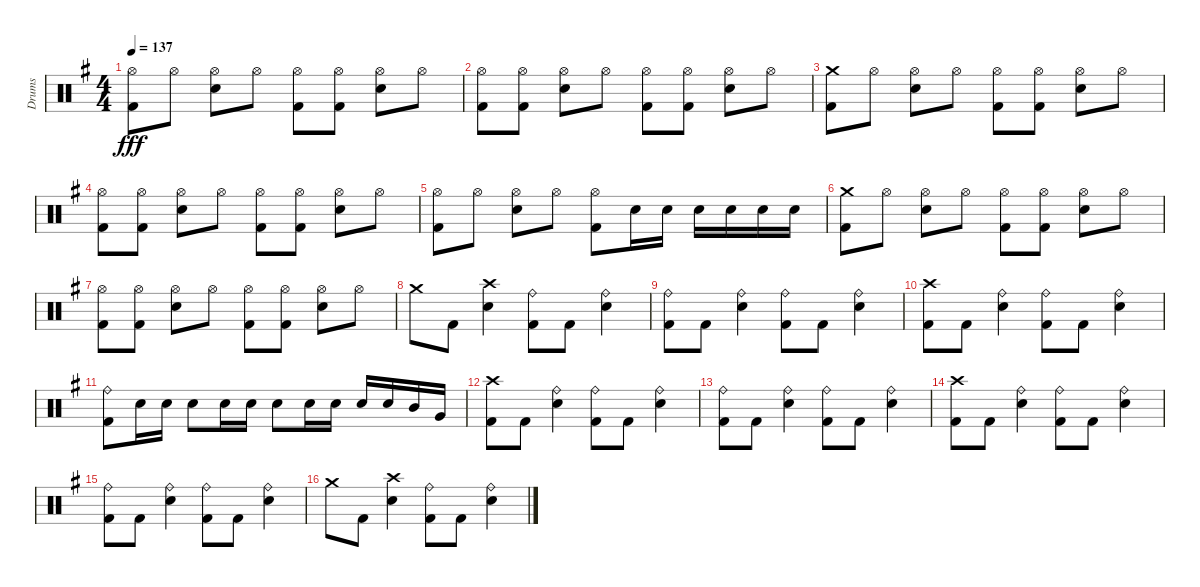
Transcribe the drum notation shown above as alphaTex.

\track ("Drums" "Drums") {instrument percussion}
\staff {score}
\articulation defaults
\ts (4 4)
\tempo 137
\clef neutral
\ks g
("Hi-Hat (open)" "Kick (hit) 2").8{dy fff} "Hi-Hat (open)".8 ("Hi-Hat (open)" "Electric Snare (hit)").8 "Hi-Hat (open)".8 ("Hi-Hat (open)" "Kick (hit) 2").8 ("Hi-Hat (open)" "Kick (hit) 2").8 ("Hi-Hat (open)" "Electric Snare (hit)").8 "Hi-Hat (open)".8 |
("Hi-Hat (open)" "Kick (hit) 2").8 ("Hi-Hat (open)" "Kick (hit) 2").8 ("Hi-Hat (open)" "Electric Snare (hit)").8 "Hi-Hat (open)".8 ("Hi-Hat (open)" "Kick (hit) 2").8 ("Hi-Hat (open)" "Kick (hit) 2").8 ("Hi-Hat (open)" "Electric Snare (hit)").8 "Hi-Hat (open)".8 |
("Crash medium (hit)" "Kick (hit) 2").8 "Hi-Hat (open)".8 ("Hi-Hat (open)" "Electric Snare (hit)").8 "Hi-Hat (open)".8 ("Hi-Hat (open)" "Kick (hit) 2").8 ("Hi-Hat (open)" "Kick (hit) 2").8 ("Hi-Hat (open)" "Electric Snare (hit)").8 "Hi-Hat (open)".8 |
("Hi-Hat (open)" "Kick (hit) 2").8 ("Hi-Hat (open)" "Kick (hit) 2").8 ("Hi-Hat (open)" "Electric Snare (hit)").8 "Hi-Hat (open)".8 ("Hi-Hat (open)" "Kick (hit) 2").8 ("Hi-Hat (open)" "Kick (hit) 2").8 ("Hi-Hat (open)" "Electric Snare (hit)").8 "Hi-Hat (open)".8 |
("Hi-Hat (open)" "Kick (hit) 2").8 "Hi-Hat (open)".8 ("Hi-Hat (open)" "Electric Snare (hit)").8 "Hi-Hat (open)".8 ("Hi-Hat (open)" "Kick (hit) 2").8 "Electric Snare (hit)".16 "Electric Snare (hit)".16 "Electric Snare (hit)".16 "Electric Snare (hit)".16 "Electric Snare (hit)".16 "Electric Snare (hit)".16 |
("Crash medium (hit)" "Kick (hit) 2").8 "Hi-Hat (open)".8 ("Hi-Hat (open)" "Electric Snare (hit)").8 "Hi-Hat (open)".8 ("Hi-Hat (open)" "Kick (hit) 2").8 ("Hi-Hat (open)" "Kick (hit) 2").8 ("Hi-Hat (open)" "Electric Snare (hit)").8 "Hi-Hat (open)".8 |
("Hi-Hat (open)" "Kick (hit) 2").8 ("Hi-Hat (open)" "Kick (hit) 2").8 ("Hi-Hat (open)" "Electric Snare (hit)").8 "Hi-Hat (open)".8 ("Hi-Hat (open)" "Kick (hit) 2").8 ("Hi-Hat (open)" "Kick (hit) 2").8 ("Hi-Hat (open)" "Electric Snare (hit)").8 "Hi-Hat (open)".8 |
"Crash medium (hit)".8 "Kick (hit) 2".8 ("Crash high (hit)" "Electric Snare (hit)").4 ("Ride (bell)" "Kick (hit) 2").8 "Kick (hit) 2".8 ("Ride (bell)" "Electric Snare (hit)").4 |
("Ride (bell)" "Kick (hit) 2").8 "Kick (hit) 2".8 ("Ride (bell)" "Electric Snare (hit)").4 ("Ride (bell)" "Kick (hit) 2").8 "Kick (hit) 2".8 ("Ride (bell)" "Electric Snare (hit)").4 |
("Crash high (hit)" "Kick (hit) 2").8 "Kick (hit) 2".8 ("Ride (bell)" "Electric Snare (hit)").4 ("Ride (bell)" "Kick (hit) 2").8 "Kick (hit) 2".8 ("Ride (bell)" "Electric Snare (hit)").4 |
("Ride (bell)" "Kick (hit) 2").8 "Electric Snare (hit)".16 "Electric Snare (hit)".16 "Electric Snare (hit)".8 "Electric Snare (hit)".16 "Electric Snare (hit)".16 "Electric Snare (hit)".8 "Electric Snare (hit)".16 "Electric Snare (hit)".16 "Electric Snare (hit)".16 "Electric Snare (hit)".16 "Mid Tom (hit)".16 "Very Low Tom (hit)".16 |
("Crash high (hit)" "Kick (hit) 2").8 "Kick (hit) 2".8 ("Ride (bell)" "Electric Snare (hit)").4 ("Ride (bell)" "Kick (hit) 2").8 "Kick (hit) 2".8 ("Ride (bell)" "Electric Snare (hit)").4 |
("Ride (bell)" "Kick (hit) 2").8 "Kick (hit) 2".8 ("Ride (bell)" "Electric Snare (hit)").4 ("Ride (bell)" "Kick (hit) 2").8 "Kick (hit) 2".8 ("Ride (bell)" "Electric Snare (hit)").4 |
("Crash high (hit)" "Kick (hit) 2").8 "Kick (hit) 2".8 ("Ride (bell)" "Electric Snare (hit)").4 ("Ride (bell)" "Kick (hit) 2").8 "Kick (hit) 2".8 ("Ride (bell)" "Electric Snare (hit)").4 |
("Ride (bell)" "Kick (hit) 2").8 "Kick (hit) 2".8 ("Ride (bell)" "Electric Snare (hit)").4 ("Ride (bell)" "Kick (hit) 2").8 "Kick (hit) 2".8 ("Ride (bell)" "Electric Snare (hit)").4 |
"Crash medium (hit)".8 "Kick (hit) 2".8 ("Crash high (hit)" "Electric Snare (hit)").4 ("Ride (bell)" "Kick (hit) 2").8 "Kick (hit) 2".8 ("Ride (bell)" "Electric Snare (hit)").4
